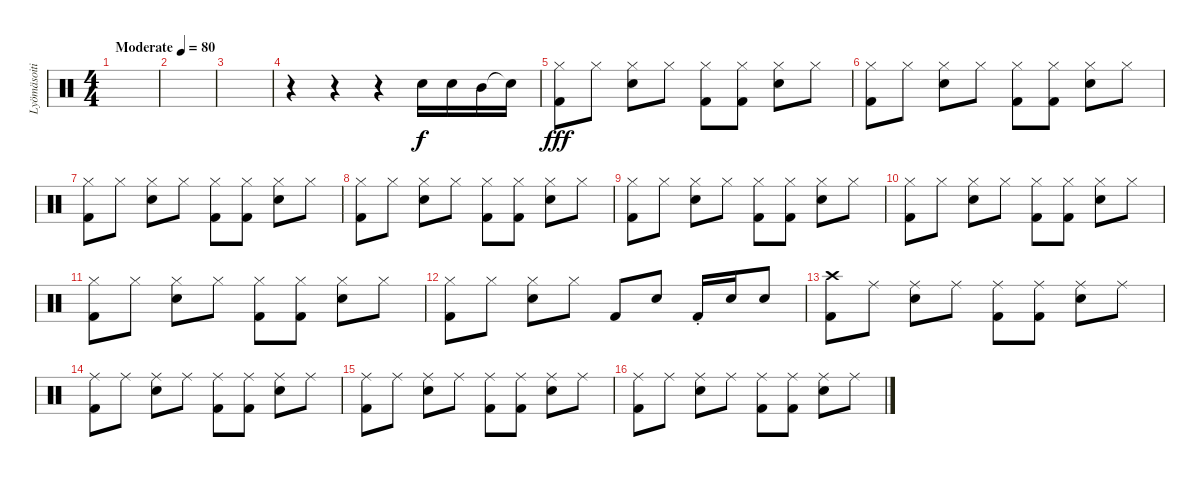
\track ("Lyömäsoitin" "Lyömäsoiti") {instrument percussion}
\staff {score}
\articulation defaults
\ts (4 4)
\tempo (80 "Moderate")
\clef neutral
\ks c
|
|
|
r.4 r.4 r.4 "Electric Snare (hit)".16 "Electric Snare (hit)".16 "Mid Tom (hit)".16 "Snare (hit)"{t}.16{dy f} |
("Hi-Hat (closed)" "Kick (hit) 2").8{dy fff} "Hi-Hat (closed)".8 ("Hi-Hat (closed)" "Electric Snare (hit)").8 "Hi-Hat (closed)".8 ("Hi-Hat (closed)" "Kick (hit) 2").8 ("Hi-Hat (closed)" "Kick (hit) 2").8 ("Hi-Hat (closed)" "Electric Snare (hit)").8 "Hi-Hat (closed)".8 |
("Hi-Hat (closed)" "Kick (hit) 2").8 "Hi-Hat (closed)".8 ("Hi-Hat (closed)" "Electric Snare (hit)").8 "Hi-Hat (closed)".8 ("Hi-Hat (closed)" "Kick (hit) 2").8 ("Hi-Hat (closed)" "Kick (hit) 2").8 ("Hi-Hat (closed)" "Electric Snare (hit)").8 "Hi-Hat (closed)".8 |
("Hi-Hat (closed)" "Kick (hit) 2").8 "Hi-Hat (closed)".8 ("Hi-Hat (closed)" "Electric Snare (hit)").8 "Hi-Hat (closed)".8 ("Hi-Hat (closed)" "Kick (hit) 2").8 ("Hi-Hat (closed)" "Kick (hit) 2").8 ("Hi-Hat (closed)" "Electric Snare (hit)").8 "Hi-Hat (closed)".8 |
("Hi-Hat (closed)" "Kick (hit) 2").8 "Hi-Hat (closed)".8 ("Hi-Hat (closed)" "Electric Snare (hit)").8 "Hi-Hat (closed)".8 ("Hi-Hat (closed)" "Kick (hit) 2").8 ("Hi-Hat (closed)" "Kick (hit) 2").8 ("Hi-Hat (closed)" "Electric Snare (hit)").8 "Hi-Hat (closed)".8 |
("Hi-Hat (closed)" "Kick (hit) 2").8 "Hi-Hat (closed)".8 ("Hi-Hat (closed)" "Electric Snare (hit)").8 "Hi-Hat (closed)".8 ("Hi-Hat (closed)" "Kick (hit) 2").8 ("Hi-Hat (closed)" "Kick (hit) 2").8 ("Hi-Hat (closed)" "Electric Snare (hit)").8 "Hi-Hat (closed)".8 |
("Hi-Hat (closed)" "Kick (hit) 2").8 "Hi-Hat (closed)".8 ("Hi-Hat (closed)" "Electric Snare (hit)").8 "Hi-Hat (closed)".8 ("Hi-Hat (closed)" "Kick (hit) 2").8 ("Hi-Hat (closed)" "Kick (hit) 2").8 ("Hi-Hat (closed)" "Electric Snare (hit)").8 "Hi-Hat (closed)".8 |
("Hi-Hat (closed)" "Kick (hit) 2").8 "Hi-Hat (closed)".8 ("Hi-Hat (closed)" "Electric Snare (hit)").8 "Hi-Hat (closed)".8 ("Hi-Hat (closed)" "Kick (hit) 2").8 ("Hi-Hat (closed)" "Kick (hit) 2").8 ("Hi-Hat (closed)" "Electric Snare (hit)").8 "Hi-Hat (closed)".8 |
("Hi-Hat (closed)" "Kick (hit) 2").8 "Hi-Hat (closed)".8 ("Hi-Hat (closed)" "Electric Snare (hit)").8 "Hi-Hat (closed)".8 "Kick (hit) 2".8 "Electric Snare (hit)".8 "Kick (hit) 2"{st}.16 "Electric Snare (hit)".16 "Electric Snare (hit)".8 |
("Crash high (hit)" "Kick (hit) 2").8 "Ride (middle)".8 ("Ride (middle)" "Electric Snare (hit)").8 "Ride (middle)".8 ("Ride (middle)" "Kick (hit) 2").8 ("Ride (middle)" "Kick (hit) 2").8 ("Ride (middle)" "Electric Snare (hit)").8 "Ride (middle)".8 |
("Ride (middle)" "Kick (hit) 2").8 "Ride (middle)".8 ("Ride (middle)" "Electric Snare (hit)").8 "Ride (middle)".8 ("Ride (middle)" "Kick (hit) 2").8 ("Ride (middle)" "Kick (hit) 2").8 ("Ride (middle)" "Electric Snare (hit)").8 "Ride (middle)".8 |
("Ride (middle)" "Kick (hit) 2").8 "Ride (middle)".8 ("Ride (middle)" "Electric Snare (hit)").8 "Ride (middle)".8 ("Ride (middle)" "Kick (hit) 2").8 ("Ride (middle)" "Kick (hit) 2").8 ("Ride (middle)" "Electric Snare (hit)").8 "Ride (middle)".8 |
("Ride (middle)" "Kick (hit) 2").8 "Ride (middle)".8 ("Ride (middle)" "Electric Snare (hit)").8 "Ride (middle)".8 ("Ride (middle)" "Kick (hit) 2").8 ("Ride (middle)" "Kick (hit) 2").8 ("Ride (middle)" "Electric Snare (hit)").8 "Ride (middle)".8
